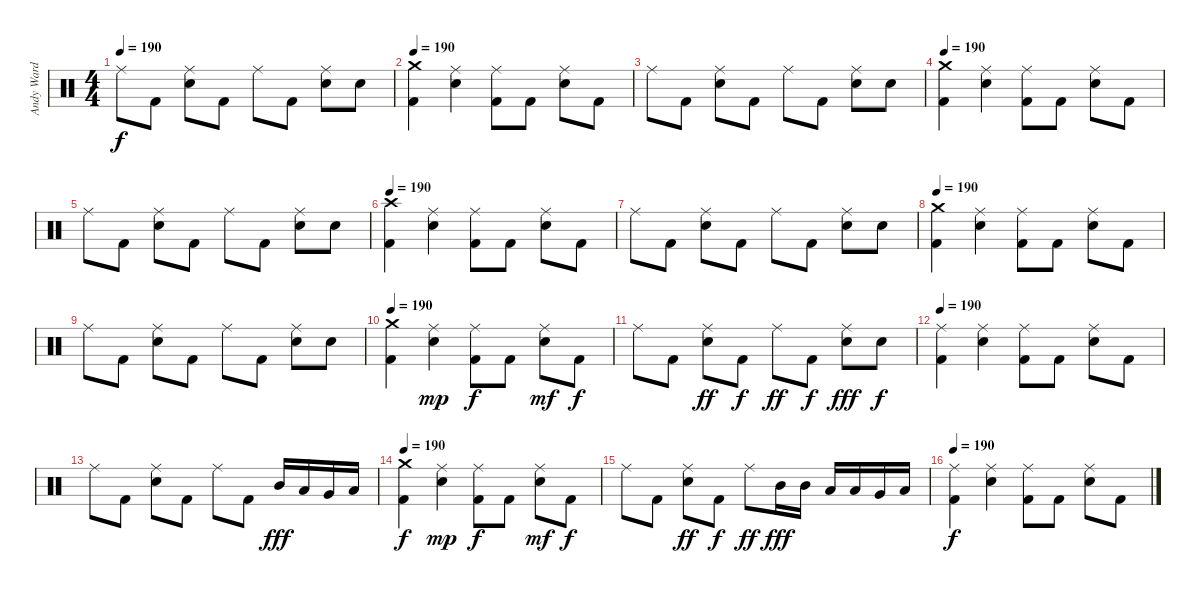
\track ("Andy Ward" "Andy Ward") {instrument percussion}
\staff {score}
\articulation defaults
\ts (4 4)
\tempo 190
\clef neutral
\ks c "Ride (middle)".8{dy f} "Kick (hit) 2".8
("Ride (middle)" "Snare (hit) 2").8 "Kick (hit) 2".8 "Ride (middle)".8 "Kick (hit) 2".8 ("Ride (middle)" "Snare (hit) 2").8 "Snare (hit) 2".8 |
\tempo 190
("Crash medium (hit)" "Kick (hit) 2").4 ("Ride (middle)" "Snare (hit) 2").4 ("Ride (middle)" "Kick (hit) 2").8 "Kick (hit) 2".8 ("Ride (middle)" "Snare (hit) 2").8 "Kick (hit) 2".8 |
"Ride (middle)".8 "Kick (hit) 2".8 ("Ride (middle)" "Snare (hit) 2").8 "Kick (hit) 2".8 "Ride (middle)".8 "Kick (hit) 2".8 ("Ride (middle)" "Snare (hit) 2").8 "Snare (hit) 2".8 |
\tempo 190
("Crash medium (hit)" "Kick (hit) 2").4 ("Ride (middle)" "Snare (hit) 2").4 ("Ride (middle)" "Kick (hit) 2").8 "Kick (hit) 2".8 ("Ride (middle)" "Snare (hit) 2").8 "Kick (hit) 2".8 |
"Ride (middle)".8 "Kick (hit) 2".8 ("Ride (middle)" "Snare (hit) 2").8 "Kick (hit) 2".8 "Ride (middle)".8 "Kick (hit) 2".8 ("Ride (middle)" "Snare (hit) 2").8 "Snare (hit) 2".8 |
\tempo 190
("Crash high (hit)" "Kick (hit) 2").4 ("Ride (middle)" "Snare (hit) 2").4 ("Ride (middle)" "Kick (hit) 2").8 "Kick (hit) 2".8 ("Ride (middle)" "Snare (hit) 2").8 "Kick (hit) 2".8 |
"Ride (middle)".8 "Kick (hit) 2".8 ("Ride (middle)" "Snare (hit) 2").8 "Kick (hit) 2".8 "Ride (middle)".8 "Kick (hit) 2".8 ("Ride (middle)" "Snare (hit) 2").8 "Snare (hit) 2".8 |
\tempo 190
("Crash medium (hit)" "Kick (hit) 2").4 ("Ride (middle)" "Snare (hit) 2").4 ("Ride (middle)" "Kick (hit) 2").8 "Kick (hit) 2".8 ("Ride (middle)" "Snare (hit) 2").8 "Kick (hit) 2".8 |
"Ride (middle)".8 "Kick (hit) 2".8 ("Ride (middle)" "Snare (hit) 2").8 "Kick (hit) 2".8 "Ride (middle)".8 "Kick (hit) 2".8 ("Ride (middle)" "Snare (hit) 2").8 "Snare (hit) 2".8 |
\tempo 190
("Crash medium (hit)" "Kick (hit) 2").4 ("Ride (middle)" "Snare (hit) 2").4{dy mp} ("Ride (middle)" "Kick (hit) 2").8{dy f} "Kick (hit) 2".8 ("Ride (middle)" "Snare (hit) 2").8{dy mf} "Kick (hit) 2".8{dy f} |
"Ride (middle)".8 "Kick (hit) 2".8 ("Ride (middle)" "Snare (hit) 2").8{dy ff} "Kick (hit) 2".8{dy f} "Ride (middle)".8{dy ff} "Kick (hit) 2".8{dy f} ("Ride (middle)" "Snare (hit) 2").8{dy fff} "Snare (hit) 2".8{dy f} |
\tempo 190
("Ride (middle)" "Kick (hit) 2").4 ("Ride (middle)" "Snare (hit) 2").4 ("Ride (middle)" "Kick (hit) 2").8 "Kick (hit) 2".8 ("Ride (middle)" "Snare (hit) 2").8 "Kick (hit) 2".8 |
"Ride (middle)".8 "Kick (hit) 2".8 ("Ride (middle)" "Snare (hit) 2").8 "Kick (hit) 2".8 "Ride (middle)".8 "Kick (hit) 2".8 "Mid Tom (hit)".16{dy fff} "Low Tom (hit)".16 "Very Low Tom (hit)".16 "Low Floor Tom (hit)".16 |
\tempo 190
("Crash medium (hit)" "Kick (hit) 2").4{dy f} ("Ride (middle)" "Snare (hit) 2").4{dy mp} ("Ride (middle)" "Kick (hit) 2").8{dy f} "Kick (hit) 2".8 ("Ride (middle)" "Snare (hit) 2").8{dy mf} "Kick (hit) 2".8{dy f} |
"Ride (middle)".8 "Kick (hit) 2".8 ("Ride (middle)" "Snare (hit) 2").8{dy ff} "Kick (hit) 2".8{dy f} "Ride (middle)".8{dy ff} "Mid Tom (hit)".16{dy fff} "Mid Tom (hit)".16 "Low Tom (hit)".16 "Low Tom (hit)".16 "Very Low Tom (hit)".16 "Low Floor Tom (hit)".16 |
\tempo 190
("Ride (middle)" "Kick (hit) 2").4{dy f} ("Ride (middle)" "Snare (hit) 2").4 ("Ride (middle)" "Kick (hit) 2").8 "Kick (hit) 2".8 ("Ride (middle)" "Snare (hit) 2").8 "Kick (hit) 2".8
